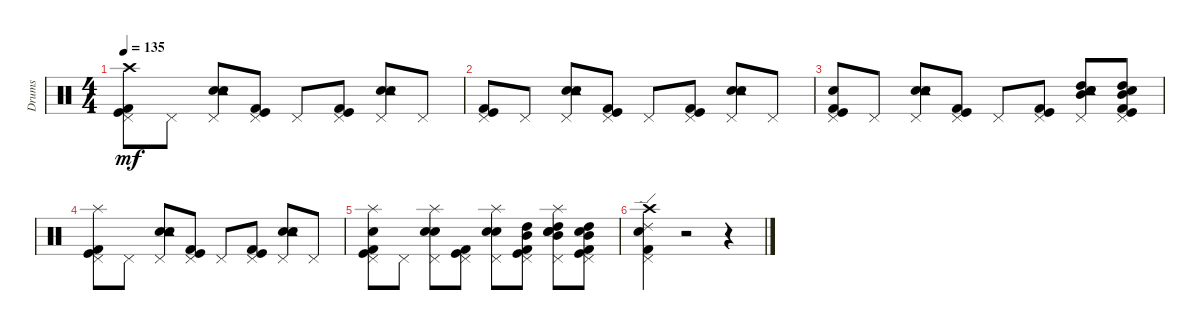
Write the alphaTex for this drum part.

\track ("Drums" "Drums") {instrument percussion}
\staff {score}
\articulation defaults
\ts (4 4)
\tempo 135
\clef neutral
\ks c
("Crash high (hit)" "Pedal Hi-Hat (hit)" "Kick (hit)" "Kick (hit) 2").8{dy mf} "Pedal Hi-Hat (hit)".8 ("Electric Snare (hit)" "Snare (hit) 2" "Pedal Hi-Hat (hit)" "Tambourine (hit)").8 ("Pedal Hi-Hat (hit)" "Kick (hit) 2" "Kick (hit)").8 "Pedal Hi-Hat (hit)".8 ("Kick (hit)" "Kick (hit) 2" "Pedal Hi-Hat (hit)").8 ("Pedal Hi-Hat (hit)" "Snare (hit) 2" "Electric Snare (hit)" "Tambourine (hit)").8 "Pedal Hi-Hat (hit)".8 |
("Kick (hit) 2" "Kick (hit)" "Pedal Hi-Hat (hit)").8 "Pedal Hi-Hat (hit)".8 ("Electric Snare (hit)" "Snare (hit) 2" "Pedal Hi-Hat (hit)" "Tambourine (hit)").8 ("Kick (hit) 2" "Kick (hit)" "Pedal Hi-Hat (hit)").8 "Pedal Hi-Hat (hit)".8 ("Pedal Hi-Hat (hit)" "Kick (hit)" "Kick (hit) 2").8 ("Snare (hit) 2" "Electric Snare (hit)" "Pedal Hi-Hat (hit)" "Tambourine (hit)").8 "Pedal Hi-Hat (hit)".8 |
("Kick (hit) 2" "Kick (hit)" "Pedal Hi-Hat (hit)" "Electric Snare (hit)").8 "Pedal Hi-Hat (hit)".8 ("Electric Snare (hit)" "Pedal Hi-Hat (hit)" "Snare (hit) 2" "Tambourine (hit)").8 ("Pedal Hi-Hat (hit)" "Kick (hit)" "Kick (hit) 2").8 "Pedal Hi-Hat (hit)".8 ("Pedal Hi-Hat (hit)" "Kick (hit) 2" "Kick (hit)").8 ("Pedal Hi-Hat (hit)" "Electric Snare (hit)" "Snare (hit) 2" "Tambourine (hit)" "Mid Tom (hit)" "High Tom (hit)").8 ("Kick (hit) 2" "Pedal Hi-Hat (hit)" "Kick (hit)" "Electric Snare (hit)" "Mid Tom (hit)" "High Tom (hit)").8 |
("Splash (hit)" "Pedal Hi-Hat (hit)" "Kick (hit)" "Kick (hit) 2").8 "Pedal Hi-Hat (hit)".8 ("Electric Snare (hit)" "Snare (hit) 2" "Pedal Hi-Hat (hit)" "Tambourine (hit)").8 ("Pedal Hi-Hat (hit)" "Kick (hit) 2" "Kick (hit)").8 "Pedal Hi-Hat (hit)".8 ("Kick (hit)" "Kick (hit) 2" "Pedal Hi-Hat (hit)").8 ("Pedal Hi-Hat (hit)" "Snare (hit) 2" "Electric Snare (hit)" "Tambourine (hit)").8 "Pedal Hi-Hat (hit)".8 |
("Kick (hit) 2" "Kick (hit)" "Pedal Hi-Hat (hit)" "Electric Snare (hit)" "Splash (hit)").8 "Pedal Hi-Hat (hit)".8 ("Electric Snare (hit)" "Pedal Hi-Hat (hit)" "Snare (hit) 2" "Splash (hit)").8 ("Pedal Hi-Hat (hit)" "Kick (hit)" "Kick (hit) 2").8 ("Snare (hit) 2" "Pedal Hi-Hat (hit)" "Electric Snare (hit)" "Splash (hit)").8 ("Mid Tom (hit)" "High Tom (hit)" "Pedal Hi-Hat (hit)" "Kick (hit) 2" "Kick (hit)").8 ("Pedal Hi-Hat (hit)" "Electric Snare (hit)" "Snare (hit) 2" "Splash (hit)" "Mid Tom (hit)" "High Tom (hit)").8 ("Kick (hit) 2" "Pedal Hi-Hat (hit)" "Kick (hit)" "Electric Snare (hit)" "Mid Tom (hit)" "High Tom (hit)").8 |
("Electric Snare (hit)" "Pedal Hi-Hat (hit)" "Ride (edge) 2" "Crash high (hit)" "Kick (hit) 2").4 r.2 r.4
